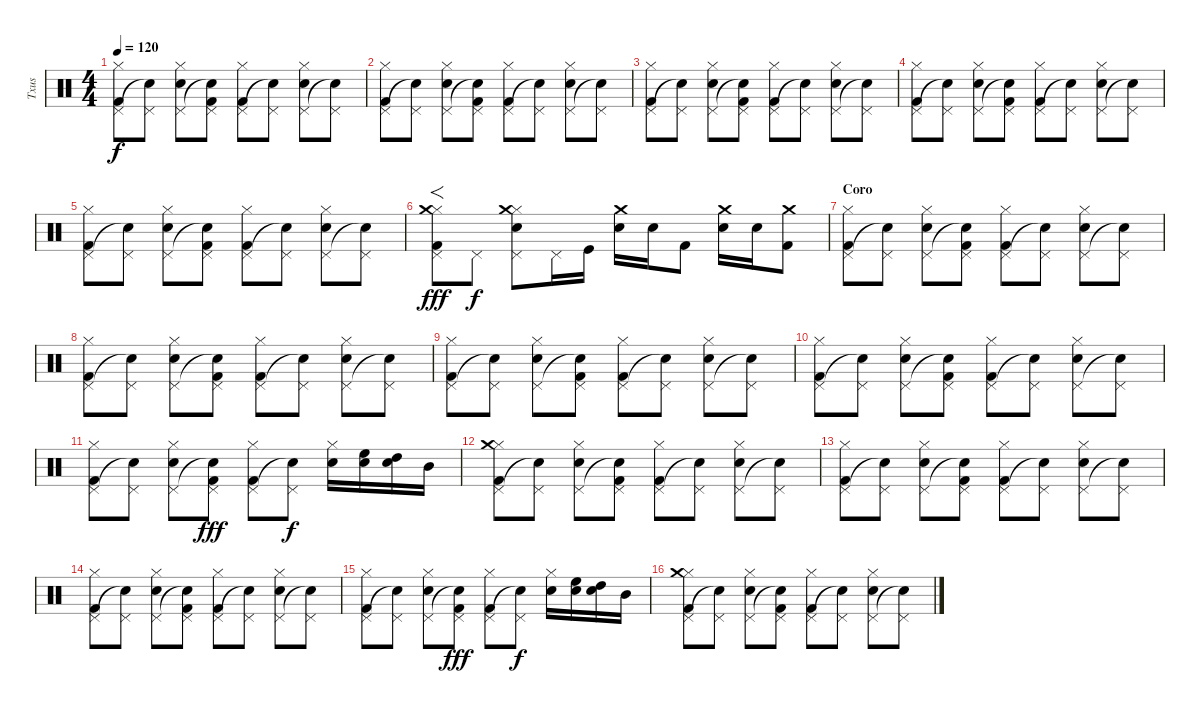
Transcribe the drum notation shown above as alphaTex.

\track ("Txus" "Txus") {instrument percussion}
\staff {score}
\articulation defaults
\ts (4 4)
\tempo 120
\clef neutral
\ks c
("Hi-Hat (closed)" "Pedal Hi-Hat (hit)" "Kick (hit) 2").8{dy f} ("Pedal Hi-Hat (hit)" "Snare (hit)"{t}).8 ("Hi-Hat (closed)" "Pedal Hi-Hat (hit)" "Snare (hit) 2").8 ("Pedal Hi-Hat (hit)" "Snare (hit)"{t} "Kick (hit) 2").8 ("Hi-Hat (closed)" "Pedal Hi-Hat (hit)" "Kick (hit) 2").8 ("Pedal Hi-Hat (hit)" "Snare (hit)"{t}).8 ("Hi-Hat (closed)" "Pedal Hi-Hat (hit)" "Snare (hit) 2").8 ("Pedal Hi-Hat (hit)" "Snare (hit) 2"{t}).8 |
("Hi-Hat (closed)" "Pedal Hi-Hat (hit)" "Kick (hit) 2").8 ("Pedal Hi-Hat (hit)" "Snare (hit)"{t}).8 ("Hi-Hat (closed)" "Pedal Hi-Hat (hit)" "Snare (hit) 2").8 ("Pedal Hi-Hat (hit)" "Snare (hit)"{t} "Kick (hit) 2").8 ("Hi-Hat (closed)" "Pedal Hi-Hat (hit)" "Kick (hit) 2").8 ("Pedal Hi-Hat (hit)" "Snare (hit)"{t}).8 ("Hi-Hat (closed)" "Pedal Hi-Hat (hit)" "Snare (hit) 2").8 ("Pedal Hi-Hat (hit)" "Snare (hit) 2"{t}).8 |
("Hi-Hat (closed)" "Pedal Hi-Hat (hit)" "Kick (hit) 2").8 ("Pedal Hi-Hat (hit)" "Snare (hit)"{t}).8 ("Hi-Hat (closed)" "Pedal Hi-Hat (hit)" "Snare (hit) 2").8 ("Pedal Hi-Hat (hit)" "Snare (hit)"{t} "Kick (hit) 2").8 ("Hi-Hat (closed)" "Pedal Hi-Hat (hit)" "Kick (hit) 2").8 ("Pedal Hi-Hat (hit)" "Snare (hit)"{t}).8 ("Hi-Hat (closed)" "Pedal Hi-Hat (hit)" "Snare (hit) 2").8 ("Pedal Hi-Hat (hit)" "Snare (hit) 2"{t}).8 |
("Hi-Hat (closed)" "Pedal Hi-Hat (hit)" "Kick (hit) 2").8 ("Pedal Hi-Hat (hit)" "Snare (hit)"{t}).8 ("Hi-Hat (closed)" "Pedal Hi-Hat (hit)" "Snare (hit) 2").8 ("Pedal Hi-Hat (hit)" "Snare (hit)"{t} "Kick (hit) 2").8 ("Hi-Hat (closed)" "Pedal Hi-Hat (hit)" "Kick (hit) 2").8 ("Pedal Hi-Hat (hit)" "Snare (hit)"{t}).8 ("Hi-Hat (closed)" "Pedal Hi-Hat (hit)" "Snare (hit) 2").8 ("Pedal Hi-Hat (hit)" "Snare (hit) 2"{t}).8 |
("Hi-Hat (closed)" "Pedal Hi-Hat (hit)" "Kick (hit) 2").8 ("Pedal Hi-Hat (hit)" "Snare (hit)"{t}).8 ("Hi-Hat (closed)" "Pedal Hi-Hat (hit)" "Snare (hit) 2").8 ("Pedal Hi-Hat (hit)" "Snare (hit)"{t} "Kick (hit) 2").8 ("Hi-Hat (closed)" "Pedal Hi-Hat (hit)" "Kick (hit) 2").8 ("Pedal Hi-Hat (hit)" "Snare (hit)"{t}).8 ("Hi-Hat (closed)" "Pedal Hi-Hat (hit)" "Snare (hit) 2").8 ("Pedal Hi-Hat (hit)" "Snare (hit) 2"{t}).8 |
("Hi-Hat (closed)" "Pedal Hi-Hat (hit)" "Crash medium (hit)" "Kick (hit) 2").8{f dy fff} "Pedal Hi-Hat (hit)".8{dy f} ("Hi-Hat (closed)" "Pedal Hi-Hat (hit)" "Crash medium (hit)" "Snare (hit) 2").8 "Pedal Hi-Hat (hit)".16 "Kick (hit)".16 ("Crash medium (hit)" "Snare (hit) 2").16 "Snare (hit) 2".16 "Kick (hit) 2".8 ("Crash medium (hit)" "Snare (hit) 2").16 "Snare (hit) 2".16 ("Crash medium (hit)" "Kick (hit) 2").8 |
\section ("" "Coro")
("Hi-Hat (closed)" "Pedal Hi-Hat (hit)" "Kick (hit) 2").8 ("Pedal Hi-Hat (hit)" "Snare (hit)"{t}).8 ("Hi-Hat (closed)" "Pedal Hi-Hat (hit)" "Snare (hit) 2").8 ("Pedal Hi-Hat (hit)" "Snare (hit)"{t} "Kick (hit) 2").8 ("Hi-Hat (closed)" "Pedal Hi-Hat (hit)" "Kick (hit) 2").8 ("Pedal Hi-Hat (hit)" "Snare (hit)"{t}).8 ("Hi-Hat (closed)" "Pedal Hi-Hat (hit)" "Snare (hit) 2").8 ("Pedal Hi-Hat (hit)" "Snare (hit) 2"{t}).8 |
("Hi-Hat (closed)" "Pedal Hi-Hat (hit)" "Kick (hit) 2").8 ("Pedal Hi-Hat (hit)" "Snare (hit)"{t}).8 ("Hi-Hat (closed)" "Pedal Hi-Hat (hit)" "Snare (hit) 2").8 ("Pedal Hi-Hat (hit)" "Snare (hit)"{t} "Kick (hit) 2").8 ("Hi-Hat (closed)" "Pedal Hi-Hat (hit)" "Kick (hit) 2").8 ("Pedal Hi-Hat (hit)" "Snare (hit)"{t}).8 ("Hi-Hat (closed)" "Pedal Hi-Hat (hit)" "Snare (hit) 2").8 ("Pedal Hi-Hat (hit)" "Snare (hit) 2"{t}).8 |
("Hi-Hat (closed)" "Pedal Hi-Hat (hit)" "Kick (hit) 2").8 ("Pedal Hi-Hat (hit)" "Snare (hit)"{t}).8 ("Hi-Hat (closed)" "Pedal Hi-Hat (hit)" "Snare (hit) 2").8 ("Pedal Hi-Hat (hit)" "Snare (hit)"{t} "Kick (hit) 2").8 ("Hi-Hat (closed)" "Pedal Hi-Hat (hit)" "Kick (hit) 2").8 ("Pedal Hi-Hat (hit)" "Snare (hit)"{t}).8 ("Hi-Hat (closed)" "Pedal Hi-Hat (hit)" "Snare (hit) 2").8 ("Pedal Hi-Hat (hit)" "Snare (hit) 2"{t}).8 |
("Hi-Hat (closed)" "Pedal Hi-Hat (hit)" "Kick (hit) 2").8 ("Pedal Hi-Hat (hit)" "Snare (hit)"{t}).8 ("Hi-Hat (closed)" "Pedal Hi-Hat (hit)" "Snare (hit) 2").8 ("Pedal Hi-Hat (hit)" "Snare (hit)"{t} "Kick (hit) 2").8 ("Hi-Hat (closed)" "Pedal Hi-Hat (hit)" "Kick (hit) 2").8 ("Pedal Hi-Hat (hit)" "Snare (hit)"{t}).8 ("Hi-Hat (closed)" "Pedal Hi-Hat (hit)" "Snare (hit) 2").8 ("Pedal Hi-Hat (hit)" "Snare (hit) 2"{t}).8 |
("Hi-Hat (closed)" "Pedal Hi-Hat (hit)" "Kick (hit) 2").8 ("Pedal Hi-Hat (hit)" "Snare (hit)"{t}).8 ("Hi-Hat (closed)" "Pedal Hi-Hat (hit)" "Snare (hit) 2").8 ("Pedal Hi-Hat (hit)" "Snare (hit)"{t} "Kick (hit) 2").8{dy fff} ("Hi-Hat (closed)" "Pedal Hi-Hat (hit)" "Kick (hit) 2").8 ("Pedal Hi-Hat (hit)" "Snare (hit)"{t}).8{dy f} ("Hi-Hat (closed)" "Snare (hit) 2").16 ("High Floor Tom (hit)" "Snare (hit) 2").16 ("High Tom (hit)" "Snare (hit) 2").16 "Mid Tom (hit)".16 |
("Hi-Hat (closed)" "Pedal Hi-Hat (hit)" "Crash medium (hit)" "Kick (hit) 2").8 ("Pedal Hi-Hat (hit)" "Snare (hit)"{t}).8 ("Hi-Hat (closed)" "Pedal Hi-Hat (hit)" "Snare (hit) 2").8 ("Pedal Hi-Hat (hit)" "Snare (hit)"{t} "Kick (hit) 2").8 ("Hi-Hat (closed)" "Pedal Hi-Hat (hit)" "Kick (hit) 2").8 ("Pedal Hi-Hat (hit)" "Snare (hit)"{t}).8 ("Hi-Hat (closed)" "Pedal Hi-Hat (hit)" "Snare (hit) 2").8 ("Pedal Hi-Hat (hit)" "Snare (hit) 2"{t}).8 |
("Hi-Hat (closed)" "Pedal Hi-Hat (hit)" "Kick (hit) 2").8 ("Pedal Hi-Hat (hit)" "Snare (hit)"{t}).8 ("Hi-Hat (closed)" "Pedal Hi-Hat (hit)" "Snare (hit) 2").8 ("Pedal Hi-Hat (hit)" "Snare (hit)"{t} "Kick (hit) 2").8 ("Hi-Hat (closed)" "Pedal Hi-Hat (hit)" "Kick (hit) 2").8 ("Pedal Hi-Hat (hit)" "Snare (hit)"{t}).8 ("Hi-Hat (closed)" "Pedal Hi-Hat (hit)" "Snare (hit) 2").8 ("Pedal Hi-Hat (hit)" "Snare (hit) 2"{t}).8 |
("Hi-Hat (closed)" "Pedal Hi-Hat (hit)" "Kick (hit) 2").8 ("Pedal Hi-Hat (hit)" "Snare (hit)"{t}).8 ("Hi-Hat (closed)" "Pedal Hi-Hat (hit)" "Snare (hit) 2").8 ("Pedal Hi-Hat (hit)" "Snare (hit)"{t} "Kick (hit) 2").8 ("Hi-Hat (closed)" "Pedal Hi-Hat (hit)" "Kick (hit) 2").8 ("Pedal Hi-Hat (hit)" "Snare (hit)"{t}).8 ("Hi-Hat (closed)" "Pedal Hi-Hat (hit)" "Snare (hit) 2").8 ("Pedal Hi-Hat (hit)" "Snare (hit) 2"{t}).8 |
("Hi-Hat (closed)" "Pedal Hi-Hat (hit)" "Kick (hit) 2").8 ("Pedal Hi-Hat (hit)" "Snare (hit)"{t}).8 ("Hi-Hat (closed)" "Pedal Hi-Hat (hit)" "Snare (hit) 2").8 ("Pedal Hi-Hat (hit)" "Snare (hit)"{t} "Kick (hit) 2").8{dy fff} ("Hi-Hat (closed)" "Pedal Hi-Hat (hit)" "Kick (hit) 2").8 ("Pedal Hi-Hat (hit)" "Snare (hit)"{t}).8{dy f} ("Hi-Hat (closed)" "Snare (hit) 2").16 ("High Floor Tom (hit)" "Snare (hit) 2").16 ("High Tom (hit)" "Snare (hit) 2").16 "Mid Tom (hit)".16 |
("Hi-Hat (closed)" "Pedal Hi-Hat (hit)" "Crash medium (hit)" "Kick (hit) 2").8 ("Pedal Hi-Hat (hit)" "Snare (hit)"{t}).8 ("Hi-Hat (closed)" "Pedal Hi-Hat (hit)" "Snare (hit) 2").8 ("Pedal Hi-Hat (hit)" "Snare (hit)"{t} "Kick (hit) 2").8 ("Hi-Hat (closed)" "Pedal Hi-Hat (hit)" "Kick (hit) 2").8 ("Pedal Hi-Hat (hit)" "Snare (hit)"{t}).8 ("Hi-Hat (closed)" "Pedal Hi-Hat (hit)" "Snare (hit) 2").8 ("Pedal Hi-Hat (hit)" "Snare (hit) 2"{t}).8
